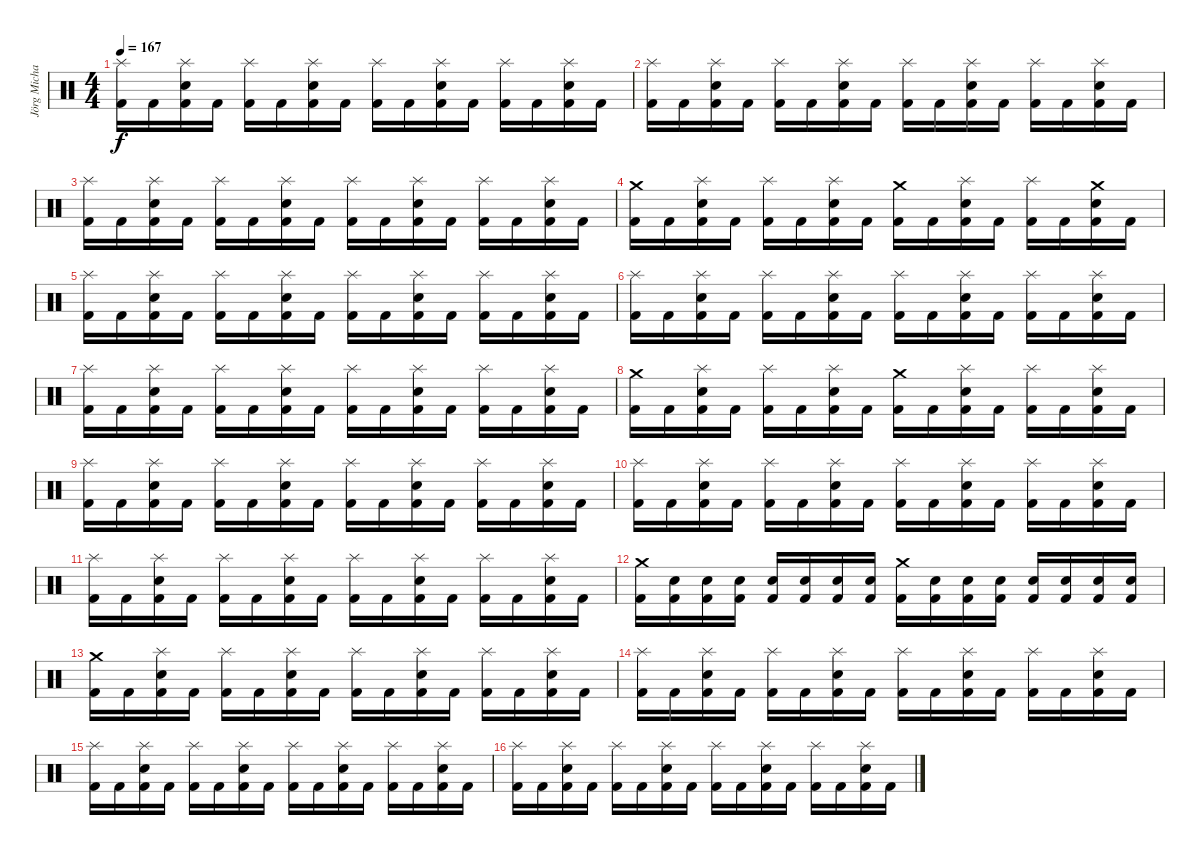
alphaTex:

\track ("Jörg Michael" "Jörg Micha") {instrument percussion}
\staff {score}
\articulation defaults
\ts (4 4)
\tempo 167
\clef neutral
\ks c
("Splash (hit)" "Kick (hit) 2").16{dy f} "Kick (hit) 2".16 ("Splash (hit)" "Snare (hit) 2" "Kick (hit) 2").16 "Kick (hit) 2".16 ("Splash (hit)" "Kick (hit) 2").16 "Kick (hit) 2".16 ("Splash (hit)" "Snare (hit) 2" "Kick (hit) 2").16 "Kick (hit) 2".16 ("Splash (hit)" "Kick (hit) 2").16 "Kick (hit) 2".16 ("Splash (hit)" "Snare (hit) 2" "Kick (hit) 2").16 "Kick (hit) 2".16 ("Splash (hit)" "Kick (hit) 2").16 "Kick (hit) 2".16 ("Splash (hit)" "Snare (hit) 2" "Kick (hit) 2").16 "Kick (hit) 2".16 |
("Splash (hit)" "Kick (hit) 2").16 "Kick (hit) 2".16 ("Splash (hit)" "Snare (hit) 2" "Kick (hit) 2").16 "Kick (hit) 2".16 ("Splash (hit)" "Kick (hit) 2").16 "Kick (hit) 2".16 ("Splash (hit)" "Snare (hit) 2" "Kick (hit) 2").16 "Kick (hit) 2".16 ("Splash (hit)" "Kick (hit) 2").16 "Kick (hit) 2".16 ("Splash (hit)" "Snare (hit) 2" "Kick (hit) 2").16 "Kick (hit) 2".16 ("Splash (hit)" "Kick (hit) 2").16 "Kick (hit) 2".16 ("Splash (hit)" "Snare (hit) 2" "Kick (hit) 2").16 "Kick (hit) 2".16 |
("Splash (hit)" "Kick (hit) 2").16 "Kick (hit) 2".16 ("Splash (hit)" "Snare (hit) 2" "Kick (hit) 2").16 "Kick (hit) 2".16 ("Splash (hit)" "Kick (hit) 2").16 "Kick (hit) 2".16 ("Splash (hit)" "Snare (hit) 2" "Kick (hit) 2").16 "Kick (hit) 2".16 ("Splash (hit)" "Kick (hit) 2").16 "Kick (hit) 2".16 ("Splash (hit)" "Snare (hit) 2" "Kick (hit) 2").16 "Kick (hit) 2".16 ("Splash (hit)" "Kick (hit) 2").16 "Kick (hit) 2".16 ("Splash (hit)" "Snare (hit) 2" "Kick (hit) 2").16 "Kick (hit) 2".16 |
("Crash medium (hit)" "Kick (hit) 2").16 "Kick (hit) 2".16 ("Splash (hit)" "Snare (hit) 2" "Kick (hit) 2").16 "Kick (hit) 2".16 ("Splash (hit)" "Kick (hit) 2").16 "Kick (hit) 2".16 ("Splash (hit)" "Snare (hit) 2" "Kick (hit) 2").16 "Kick (hit) 2".16 ("Crash medium (hit)" "Kick (hit) 2").16 "Kick (hit) 2".16 ("Splash (hit)" "Snare (hit) 2" "Kick (hit) 2").16 "Kick (hit) 2".16 ("Splash (hit)" "Kick (hit) 2").16 "Kick (hit) 2".16 ("Crash medium (hit)" "Snare (hit) 2" "Kick (hit) 2").16 "Kick (hit) 2".16 |
("Splash (hit)" "Kick (hit) 2").16 "Kick (hit) 2".16 ("Splash (hit)" "Snare (hit) 2" "Kick (hit) 2").16 "Kick (hit) 2".16 ("Splash (hit)" "Kick (hit) 2").16 "Kick (hit) 2".16 ("Splash (hit)" "Snare (hit) 2" "Kick (hit) 2").16 "Kick (hit) 2".16 ("Splash (hit)" "Kick (hit) 2").16 "Kick (hit) 2".16 ("Splash (hit)" "Snare (hit) 2" "Kick (hit) 2").16 "Kick (hit) 2".16 ("Splash (hit)" "Kick (hit) 2").16 "Kick (hit) 2".16 ("Splash (hit)" "Snare (hit) 2" "Kick (hit) 2").16 "Kick (hit) 2".16 |
("Splash (hit)" "Kick (hit) 2").16 "Kick (hit) 2".16 ("Splash (hit)" "Snare (hit) 2" "Kick (hit) 2").16 "Kick (hit) 2".16 ("Splash (hit)" "Kick (hit) 2").16 "Kick (hit) 2".16 ("Splash (hit)" "Snare (hit) 2" "Kick (hit) 2").16 "Kick (hit) 2".16 ("Splash (hit)" "Kick (hit) 2").16 "Kick (hit) 2".16 ("Splash (hit)" "Snare (hit) 2" "Kick (hit) 2").16 "Kick (hit) 2".16 ("Splash (hit)" "Kick (hit) 2").16 "Kick (hit) 2".16 ("Splash (hit)" "Snare (hit) 2" "Kick (hit) 2").16 "Kick (hit) 2".16 |
("Splash (hit)" "Kick (hit) 2").16 "Kick (hit) 2".16 ("Splash (hit)" "Snare (hit) 2" "Kick (hit) 2").16 "Kick (hit) 2".16 ("Splash (hit)" "Kick (hit) 2").16 "Kick (hit) 2".16 ("Splash (hit)" "Snare (hit) 2" "Kick (hit) 2").16 "Kick (hit) 2".16 ("Splash (hit)" "Kick (hit) 2").16 "Kick (hit) 2".16 ("Splash (hit)" "Snare (hit) 2" "Kick (hit) 2").16 "Kick (hit) 2".16 ("Splash (hit)" "Kick (hit) 2").16 "Kick (hit) 2".16 ("Splash (hit)" "Snare (hit) 2" "Kick (hit) 2").16 "Kick (hit) 2".16 |
("Crash medium (hit)" "Kick (hit) 2").16 "Kick (hit) 2".16 ("Splash (hit)" "Snare (hit) 2" "Kick (hit) 2").16 "Kick (hit) 2".16 ("Splash (hit)" "Kick (hit) 2").16 "Kick (hit) 2".16 ("Splash (hit)" "Snare (hit) 2" "Kick (hit) 2").16 "Kick (hit) 2".16 ("Crash medium (hit)" "Kick (hit) 2").16 "Kick (hit) 2".16 ("Splash (hit)" "Snare (hit) 2" "Kick (hit) 2").16 "Kick (hit) 2".16 ("Splash (hit)" "Kick (hit) 2").16 "Kick (hit) 2".16 ("Splash (hit)" "Snare (hit) 2" "Kick (hit) 2").16 "Kick (hit) 2".16 |
("Splash (hit)" "Kick (hit) 2").16 "Kick (hit) 2".16 ("Splash (hit)" "Snare (hit) 2" "Kick (hit) 2").16 "Kick (hit) 2".16 ("Splash (hit)" "Kick (hit) 2").16 "Kick (hit) 2".16 ("Splash (hit)" "Snare (hit) 2" "Kick (hit) 2").16 "Kick (hit) 2".16 ("Splash (hit)" "Kick (hit) 2").16 "Kick (hit) 2".16 ("Splash (hit)" "Snare (hit) 2" "Kick (hit) 2").16 "Kick (hit) 2".16 ("Splash (hit)" "Kick (hit) 2").16 "Kick (hit) 2".16 ("Splash (hit)" "Snare (hit) 2" "Kick (hit) 2").16 "Kick (hit) 2".16 |
("Splash (hit)" "Kick (hit) 2").16 "Kick (hit) 2".16 ("Splash (hit)" "Snare (hit) 2" "Kick (hit) 2").16 "Kick (hit) 2".16 ("Splash (hit)" "Kick (hit) 2").16 "Kick (hit) 2".16 ("Splash (hit)" "Snare (hit) 2" "Kick (hit) 2").16 "Kick (hit) 2".16 ("Splash (hit)" "Kick (hit) 2").16 "Kick (hit) 2".16 ("Splash (hit)" "Snare (hit) 2" "Kick (hit) 2").16 "Kick (hit) 2".16 ("Splash (hit)" "Kick (hit) 2").16 "Kick (hit) 2".16 ("Splash (hit)" "Snare (hit) 2" "Kick (hit) 2").16 "Kick (hit) 2".16 |
("Splash (hit)" "Kick (hit) 2").16 "Kick (hit) 2".16 ("Splash (hit)" "Snare (hit) 2" "Kick (hit) 2").16 "Kick (hit) 2".16 ("Splash (hit)" "Kick (hit) 2").16 "Kick (hit) 2".16 ("Splash (hit)" "Snare (hit) 2" "Kick (hit) 2").16 "Kick (hit) 2".16 ("Splash (hit)" "Kick (hit) 2").16 "Kick (hit) 2".16 ("Splash (hit)" "Snare (hit) 2" "Kick (hit) 2").16 "Kick (hit) 2".16 ("Splash (hit)" "Kick (hit) 2").16 "Kick (hit) 2".16 ("Splash (hit)" "Snare (hit) 2" "Kick (hit) 2").16 "Kick (hit) 2".16 |
("Crash medium (hit)" "Kick (hit) 2").16 ("Snare (hit) 2" "Kick (hit) 2").16 ("Snare (hit) 2" "Kick (hit) 2").16 ("Snare (hit) 2" "Kick (hit) 2").16 ("Snare (hit) 2" "Kick (hit) 2").16 ("Snare (hit) 2" "Kick (hit) 2").16 ("Snare (hit) 2" "Kick (hit) 2").16 ("Snare (hit) 2" "Kick (hit) 2").16 ("Crash medium (hit)" "Kick (hit) 2").16 ("Snare (hit) 2" "Kick (hit) 2").16 ("Snare (hit) 2" "Kick (hit) 2").16 ("Snare (hit) 2" "Kick (hit) 2").16 ("Snare (hit) 2" "Kick (hit) 2").16 ("Snare (hit) 2" "Kick (hit) 2").16 ("Snare (hit) 2" "Kick (hit) 2").16 ("Snare (hit) 2" "Kick (hit) 2").16 |
("Crash medium (hit)" "Kick (hit) 2").16 "Kick (hit) 2".16 ("Splash (hit)" "Snare (hit) 2" "Kick (hit) 2").16 "Kick (hit) 2".16 ("Splash (hit)" "Kick (hit) 2").16 "Kick (hit) 2".16 ("Splash (hit)" "Snare (hit) 2" "Kick (hit) 2").16 "Kick (hit) 2".16 ("Splash (hit)" "Kick (hit) 2").16 "Kick (hit) 2".16 ("Splash (hit)" "Snare (hit) 2" "Kick (hit) 2").16 "Kick (hit) 2".16 ("Splash (hit)" "Kick (hit) 2").16 "Kick (hit) 2".16 ("Splash (hit)" "Snare (hit) 2" "Kick (hit) 2").16 "Kick (hit) 2".16 |
("Splash (hit)" "Kick (hit) 2").16 "Kick (hit) 2".16 ("Splash (hit)" "Snare (hit) 2" "Kick (hit) 2").16 "Kick (hit) 2".16 ("Splash (hit)" "Kick (hit) 2").16 "Kick (hit) 2".16 ("Splash (hit)" "Snare (hit) 2" "Kick (hit) 2").16 "Kick (hit) 2".16 ("Splash (hit)" "Kick (hit) 2").16 "Kick (hit) 2".16 ("Splash (hit)" "Snare (hit) 2" "Kick (hit) 2").16 "Kick (hit) 2".16 ("Splash (hit)" "Kick (hit) 2").16 "Kick (hit) 2".16 ("Splash (hit)" "Snare (hit) 2" "Kick (hit) 2").16 "Kick (hit) 2".16 |
("Splash (hit)" "Kick (hit) 2").16 "Kick (hit) 2".16 ("Splash (hit)" "Snare (hit) 2" "Kick (hit) 2").16 "Kick (hit) 2".16 ("Splash (hit)" "Kick (hit) 2").16 "Kick (hit) 2".16 ("Splash (hit)" "Snare (hit) 2" "Kick (hit) 2").16 "Kick (hit) 2".16 ("Splash (hit)" "Kick (hit) 2").16 "Kick (hit) 2".16 ("Splash (hit)" "Snare (hit) 2" "Kick (hit) 2").16 "Kick (hit) 2".16 ("Splash (hit)" "Kick (hit) 2").16 "Kick (hit) 2".16 ("Splash (hit)" "Snare (hit) 2" "Kick (hit) 2").16 "Kick (hit) 2".16 |
("Splash (hit)" "Kick (hit) 2").16 "Kick (hit) 2".16 ("Splash (hit)" "Snare (hit) 2" "Kick (hit) 2").16 "Kick (hit) 2".16 ("Splash (hit)" "Kick (hit) 2").16 "Kick (hit) 2".16 ("Splash (hit)" "Snare (hit) 2" "Kick (hit) 2").16 "Kick (hit) 2".16 ("Splash (hit)" "Kick (hit) 2").16 "Kick (hit) 2".16 ("Splash (hit)" "Snare (hit) 2" "Kick (hit) 2").16 "Kick (hit) 2".16 ("Splash (hit)" "Kick (hit) 2").16 "Kick (hit) 2".16 ("Splash (hit)" "Snare (hit) 2" "Kick (hit) 2").16 "Kick (hit) 2".16
